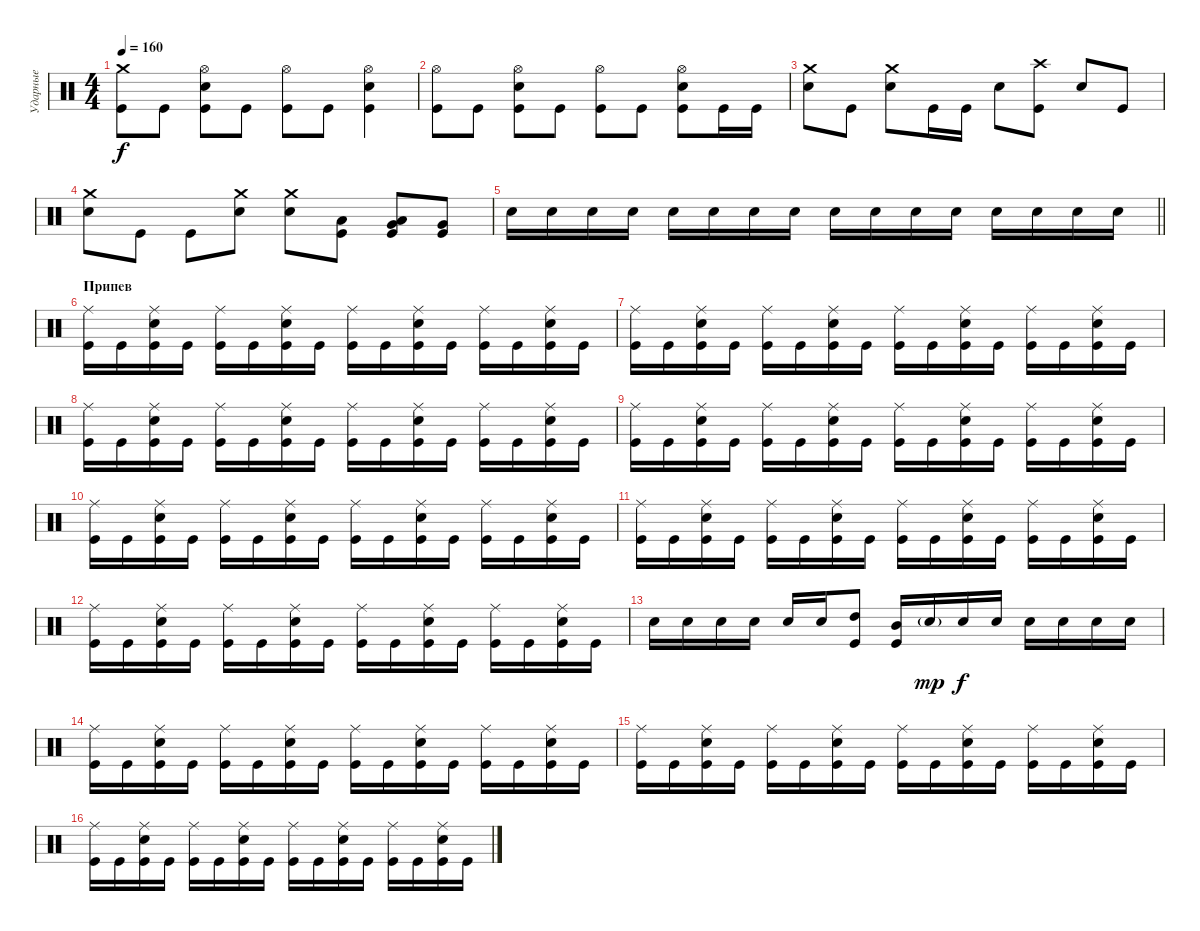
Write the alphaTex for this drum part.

\track ("Ударные" "Ударные") {instrument percussion}
\staff {score}
\articulation defaults
\ts (4 4)
\tempo 160
\clef neutral
\ks c
("Kick (hit)" "Crash medium (hit)").8{dy f} "Kick (hit)".8 ("Kick (hit)" "Snare (hit) 2" "Hi-Hat (open)").8 "Kick (hit)".8 ("Kick (hit)" "Hi-Hat (open)").8 "Kick (hit)".8 ("Kick (hit)" "Snare (hit) 2" "Hi-Hat (open)").4 |
("Kick (hit)" "Hi-Hat (open)").8 "Kick (hit)".8 ("Kick (hit)" "Snare (hit) 2" "Hi-Hat (open)").8 "Kick (hit)".8 ("Kick (hit)" "Hi-Hat (open)").8 "Kick (hit)".8 ("Kick (hit)" "Snare (hit) 2" "Hi-Hat (open)").8 "Kick (hit)".16 "Kick (hit)".16 |
("Snare (hit) 2" "Crash medium (hit)").8 "Kick (hit)".8 ("Snare (hit) 2" "Crash medium (hit)").8 "Kick (hit)".16 "Kick (hit)".16 "Snare (hit) 2".8 ("Kick (hit)" "Crash high (hit)").8 "Snare (hit) 2".8 "Kick (hit)".8 |
("Snare (hit) 2" "Crash medium (hit)").8 "Kick (hit)".8 "Kick (hit)".8 ("Snare (hit) 2" "Crash medium (hit)").8 ("Snare (hit) 2" "Crash medium (hit)").8 ("Kick (hit)" "Low Tom (hit)").8 ("Kick (hit)" "Very Low Tom (hit)" "Low Tom (hit)").8{bd 60} ("Kick (hit)" "Very Low Tom (hit)").8 |
\barLineRight lightlight "Snare (hit) 2".16 "Snare (hit) 2".16 "Snare (hit) 2".16 "Snare (hit) 2".16 "Snare (hit) 2".16 "Snare (hit) 2".16 "Snare (hit) 2".16 "Snare (hit) 2".16 "Snare (hit) 2".16 "Snare (hit) 2".16 "Snare (hit) 2".16 "Snare (hit) 2".16 "Snare (hit) 2".16 "Snare (hit) 2".16 "Snare (hit) 2".16 "Snare (hit) 2".16
|
\section ("" "Припев")
("Kick (hit)" "Ride (middle)").16 "Kick (hit)".16 ("Kick (hit)" "Snare (hit) 2" "Ride (middle)").16 "Kick (hit)".16 ("Kick (hit)" "Ride (middle)").16 "Kick (hit)".16 ("Kick (hit)" "Snare (hit) 2" "Ride (middle)").16 "Kick (hit)".16 ("Kick (hit)" "Ride (middle)").16 "Kick (hit)".16 ("Kick (hit)" "Snare (hit) 2" "Ride (middle)").16 "Kick (hit)".16 ("Kick (hit)" "Ride (middle)").16 "Kick (hit)".16 ("Kick (hit)" "Snare (hit) 2" "Ride (middle)").16 "Kick (hit)".16 |
("Kick (hit)" "Ride (middle)").16 "Kick (hit)".16 ("Kick (hit)" "Snare (hit) 2" "Ride (middle)").16 "Kick (hit)".16 ("Kick (hit)" "Ride (middle)").16 "Kick (hit)".16 ("Kick (hit)" "Snare (hit) 2" "Ride (middle)").16 "Kick (hit)".16 ("Kick (hit)" "Ride (middle)").16 "Kick (hit)".16 ("Kick (hit)" "Snare (hit) 2" "Ride (middle)").16 "Kick (hit)".16 ("Kick (hit)" "Ride (middle)").16 "Kick (hit)".16 ("Kick (hit)" "Snare (hit) 2" "Ride (middle)").16 "Kick (hit)".16 |
("Kick (hit)" "Ride (middle)").16 "Kick (hit)".16 ("Kick (hit)" "Snare (hit) 2" "Ride (middle)").16 "Kick (hit)".16 ("Kick (hit)" "Ride (middle)").16 "Kick (hit)".16 ("Kick (hit)" "Snare (hit) 2" "Ride (middle)").16 "Kick (hit)".16 ("Kick (hit)" "Ride (middle)").16 "Kick (hit)".16 ("Kick (hit)" "Snare (hit) 2" "Ride (middle)").16 "Kick (hit)".16 ("Kick (hit)" "Ride (middle)").16 "Kick (hit)".16 ("Kick (hit)" "Snare (hit) 2" "Ride (middle)").16 "Kick (hit)".16 |
("Kick (hit)" "Ride (middle)").16 "Kick (hit)".16 ("Kick (hit)" "Snare (hit) 2" "Ride (middle)").16 "Kick (hit)".16 ("Kick (hit)" "Ride (middle)").16 "Kick (hit)".16 ("Kick (hit)" "Snare (hit) 2" "Ride (middle)").16 "Kick (hit)".16 ("Kick (hit)" "Ride (middle)").16 "Kick (hit)".16 ("Kick (hit)" "Snare (hit) 2" "Ride (middle)").16 "Kick (hit)".16 ("Kick (hit)" "Ride (middle)").16 "Kick (hit)".16 ("Kick (hit)" "Snare (hit) 2" "Ride (middle)").16 "Kick (hit)".16 |
("Kick (hit)" "Ride (middle)").16 "Kick (hit)".16 ("Kick (hit)" "Snare (hit) 2" "Ride (middle)").16 "Kick (hit)".16 ("Kick (hit)" "Ride (middle)").16 "Kick (hit)".16 ("Kick (hit)" "Snare (hit) 2" "Ride (middle)").16 "Kick (hit)".16 ("Kick (hit)" "Ride (middle)").16 "Kick (hit)".16 ("Kick (hit)" "Snare (hit) 2" "Ride (middle)").16 "Kick (hit)".16 ("Kick (hit)" "Ride (middle)").16 "Kick (hit)".16 ("Kick (hit)" "Snare (hit) 2" "Ride (middle)").16 "Kick (hit)".16 |
("Kick (hit)" "Ride (middle)").16 "Kick (hit)".16 ("Kick (hit)" "Snare (hit) 2" "Ride (middle)").16 "Kick (hit)".16 ("Kick (hit)" "Ride (middle)").16 "Kick (hit)".16 ("Kick (hit)" "Snare (hit) 2" "Ride (middle)").16 "Kick (hit)".16 ("Kick (hit)" "Ride (middle)").16 "Kick (hit)".16 ("Kick (hit)" "Snare (hit) 2" "Ride (middle)").16 "Kick (hit)".16 ("Kick (hit)" "Ride (middle)").16 "Kick (hit)".16 ("Kick (hit)" "Snare (hit) 2" "Ride (middle)").16 "Kick (hit)".16 |
("Kick (hit)" "Ride (middle)").16 "Kick (hit)".16 ("Kick (hit)" "Snare (hit) 2" "Ride (middle)").16 "Kick (hit)".16 ("Kick (hit)" "Ride (middle)").16 "Kick (hit)".16 ("Kick (hit)" "Snare (hit) 2" "Ride (middle)").16 "Kick (hit)".16 ("Kick (hit)" "Ride (middle)").16 "Kick (hit)".16 ("Kick (hit)" "Snare (hit) 2" "Ride (middle)").16 "Kick (hit)".16 ("Kick (hit)" "Ride (middle)").16 "Kick (hit)".16 ("Kick (hit)" "Snare (hit) 2" "Ride (middle)").16 "Kick (hit)".16 |
"Snare (hit) 2".16 "Snare (hit) 2".16 "Snare (hit) 2".16 "Snare (hit) 2".16 "Snare (hit) 2".16 "Snare (hit) 2".16 ("Kick (hit)" "High Tom (hit)").8 ("Kick (hit)" "Mid Tom (hit)").16 "Snare (hit) 2"{g}.16{dy mp} "Snare (hit) 2".16{dy f} "Snare (hit) 2".16 "Snare (hit) 2".16 "Snare (hit) 2".16 "Snare (hit) 2".16 "Snare (hit) 2".16 |
("Kick (hit)" "Ride (middle)").16 "Kick (hit)".16 ("Kick (hit)" "Snare (hit) 2" "Ride (middle)").16 "Kick (hit)".16 ("Kick (hit)" "Ride (middle)").16 "Kick (hit)".16 ("Kick (hit)" "Snare (hit) 2" "Ride (middle)").16 "Kick (hit)".16 ("Kick (hit)" "Ride (middle)").16 "Kick (hit)".16 ("Kick (hit)" "Snare (hit) 2" "Ride (middle)").16 "Kick (hit)".16 ("Kick (hit)" "Ride (middle)").16 "Kick (hit)".16 ("Kick (hit)" "Snare (hit) 2" "Ride (middle)").16 "Kick (hit)".16 |
("Kick (hit)" "Ride (middle)").16 "Kick (hit)".16 ("Kick (hit)" "Snare (hit) 2" "Ride (middle)").16 "Kick (hit)".16 ("Kick (hit)" "Ride (middle)").16 "Kick (hit)".16 ("Kick (hit)" "Snare (hit) 2" "Ride (middle)").16 "Kick (hit)".16 ("Kick (hit)" "Ride (middle)").16 "Kick (hit)".16 ("Kick (hit)" "Snare (hit) 2" "Ride (middle)").16 "Kick (hit)".16 ("Kick (hit)" "Ride (middle)").16 "Kick (hit)".16 ("Kick (hit)" "Snare (hit) 2" "Ride (middle)").16 "Kick (hit)".16 |
("Kick (hit)" "Ride (middle)").16 "Kick (hit)".16 ("Kick (hit)" "Snare (hit) 2" "Ride (middle)").16 "Kick (hit)".16 ("Kick (hit)" "Ride (middle)").16 "Kick (hit)".16 ("Kick (hit)" "Snare (hit) 2" "Ride (middle)").16 "Kick (hit)".16 ("Kick (hit)" "Ride (middle)").16 "Kick (hit)".16 ("Kick (hit)" "Snare (hit) 2" "Ride (middle)").16 "Kick (hit)".16 ("Kick (hit)" "Ride (middle)").16 "Kick (hit)".16 ("Kick (hit)" "Snare (hit) 2" "Ride (middle)").16 "Kick (hit)".16
